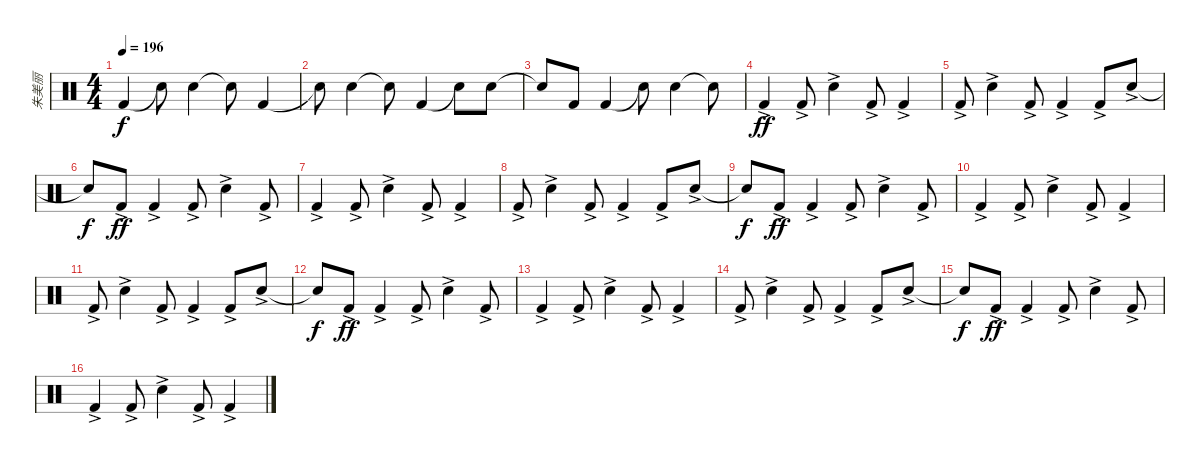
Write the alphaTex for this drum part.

\track ("朱美丽" "朱美丽") {instrument percussion}
\staff {score}
\articulation defaults
\ts (4 4)
\tempo 196
\clef neutral
\ks c "Kick (hit) 2".4{dy f} "Snare (hit)"{t}.8 "Electric Snare (hit)".4 "Snare (hit)"{t}.8 "Kick (hit) 2".4
|
"Snare (hit)"{t}.8 "Electric Snare (hit)".4 "Snare (hit)"{t}.8 "Kick (hit) 2".4 "Snare (hit)"{t}.8 "Electric Snare (hit)".8 |
"Snare (hit)"{t}.8 "Kick (hit) 2".8 "Kick (hit) 2".4 "Snare (hit)"{t}.8 "Electric Snare (hit)".4 "Snare (hit)"{t}.8 |
"Kick (hit) 2"{ac}.4{dy ff} "Kick (hit) 2"{ac}.8 "Electric Snare (hit)"{ac}.4 "Kick (hit) 2"{ac}.8 "Kick (hit) 2"{ac}.4 |
"Kick (hit) 2"{ac}.8 "Electric Snare (hit)"{ac}.4 "Kick (hit) 2"{ac}.8 "Kick (hit) 2"{ac}.4 "Kick (hit) 2"{ac}.8 "Electric Snare (hit)"{ac}.8 |
"Snare (hit)"{t}.8{dy f} "Kick (hit) 2"{ac}.8{dy ff} "Kick (hit) 2"{ac}.4 "Kick (hit) 2"{ac}.8 "Electric Snare (hit)"{ac}.4 "Kick (hit) 2"{ac}.8 |
"Kick (hit) 2"{ac}.4 "Kick (hit) 2"{ac}.8 "Electric Snare (hit)"{ac}.4 "Kick (hit) 2"{ac}.8 "Kick (hit) 2"{ac}.4 |
"Kick (hit) 2"{ac}.8 "Electric Snare (hit)"{ac}.4 "Kick (hit) 2"{ac}.8 "Kick (hit) 2"{ac}.4 "Kick (hit) 2"{ac}.8 "Electric Snare (hit)"{ac}.8 |
"Snare (hit)"{t}.8{dy f} "Kick (hit) 2"{ac}.8{dy ff} "Kick (hit) 2"{ac}.4 "Kick (hit) 2"{ac}.8 "Electric Snare (hit)"{ac}.4 "Kick (hit) 2"{ac}.8 |
"Kick (hit) 2"{ac}.4 "Kick (hit) 2"{ac}.8 "Electric Snare (hit)"{ac}.4 "Kick (hit) 2"{ac}.8 "Kick (hit) 2"{ac}.4 |
"Kick (hit) 2"{ac}.8 "Electric Snare (hit)"{ac}.4 "Kick (hit) 2"{ac}.8 "Kick (hit) 2"{ac}.4 "Kick (hit) 2"{ac}.8 "Electric Snare (hit)"{ac}.8 |
"Snare (hit)"{t}.8{dy f} "Kick (hit) 2"{ac}.8{dy ff} "Kick (hit) 2"{ac}.4 "Kick (hit) 2"{ac}.8 "Electric Snare (hit)"{ac}.4 "Kick (hit) 2"{ac}.8 |
"Kick (hit) 2"{ac}.4 "Kick (hit) 2"{ac}.8 "Electric Snare (hit)"{ac}.4 "Kick (hit) 2"{ac}.8 "Kick (hit) 2"{ac}.4 |
"Kick (hit) 2"{ac}.8 "Electric Snare (hit)"{ac}.4 "Kick (hit) 2"{ac}.8 "Kick (hit) 2"{ac}.4 "Kick (hit) 2"{ac}.8 "Electric Snare (hit)"{ac}.8 |
"Snare (hit)"{t}.8{dy f} "Kick (hit) 2"{ac}.8{dy ff} "Kick (hit) 2"{ac}.4 "Kick (hit) 2"{ac}.8 "Electric Snare (hit)"{ac}.4 "Kick (hit) 2"{ac}.8 |
"Kick (hit) 2"{ac}.4 "Kick (hit) 2"{ac}.8 "Electric Snare (hit)"{ac}.4 "Kick (hit) 2"{ac}.8 "Kick (hit) 2"{ac}.4
